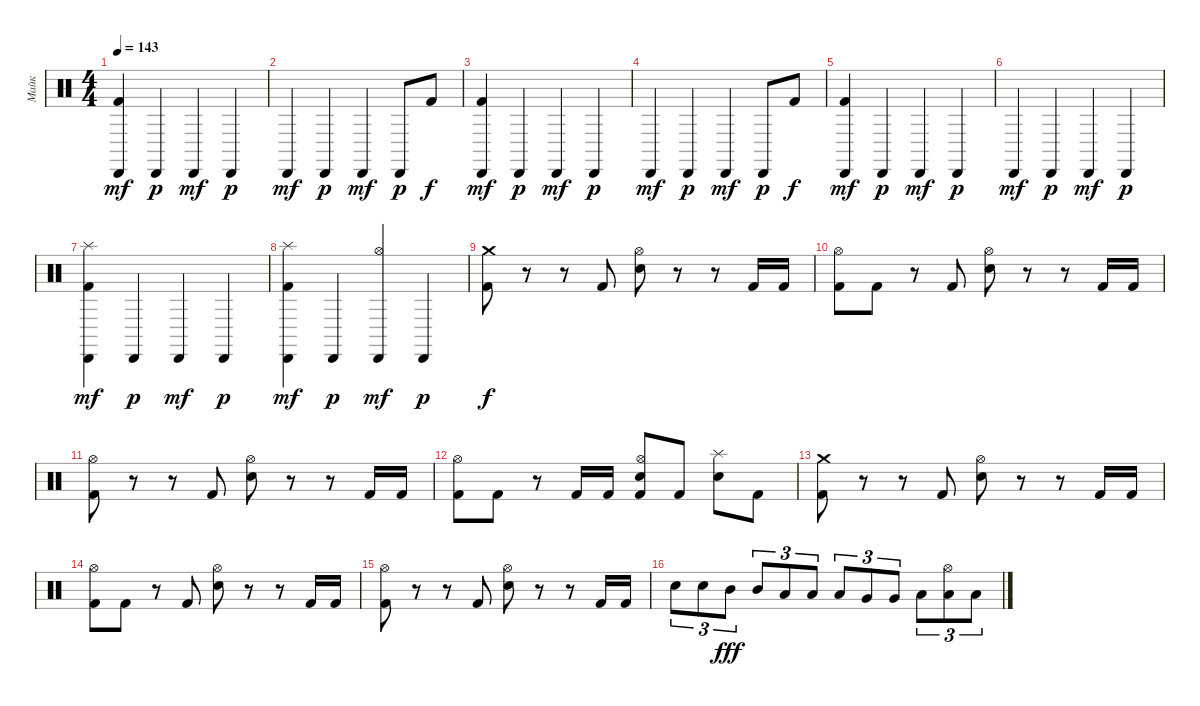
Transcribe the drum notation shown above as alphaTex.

\track ("Майк" "Майк") {instrument percussion}
\staff {score}
\articulation defaults
\ts (4 4)
\tempo 143
\clef neutral
\ks c
("Kick (hit) 2" "Cabasa (hit)").4{dy mf} "Cabasa (hit)".4{dy p} "Cabasa (hit)".4{dy mf} "Cabasa (hit)".4{dy p} |
"Cabasa (hit)".4{dy mf} "Cabasa (hit)".4{dy p} "Cabasa (hit)".4{dy mf} "Cabasa (hit)".8{dy p} "Kick (hit) 2".8{dy f} |
("Cabasa (hit)" "Kick (hit) 2").4{dy mf} "Cabasa (hit)".4{dy p} "Cabasa (hit)".4{dy mf} "Cabasa (hit)".4{dy p} |
"Cabasa (hit)".4{dy mf} "Cabasa (hit)".4{dy p} "Cabasa (hit)".4{dy mf} "Cabasa (hit)".8{dy p} "Kick (hit) 2".8{dy f} |
("Cabasa (hit)" "Kick (hit) 2").4{dy mf} "Cabasa (hit)".4{dy p} "Cabasa (hit)".4{dy mf} "Cabasa (hit)".4{dy p} |
"Cabasa (hit)".4{dy mf} "Cabasa (hit)".4{dy p} "Cabasa (hit)".4{dy mf} "Cabasa (hit)".4{dy p} |
("Splash (hit)" "Cabasa (hit)" "Kick (hit) 2").4{dy mf} "Cabasa (hit)".4{dy p} "Cabasa (hit)".4{dy mf} "Cabasa (hit)".4{dy p} |
("Splash (hit)" "Cabasa (hit)" "Kick (hit) 2").4{dy mf} "Cabasa (hit)".4{dy p} ("Cabasa (hit)" "Hi-Hat (open)").4{dy mf} "Cabasa (hit)".4{dy p} |
("Crash medium (hit)" "Kick (hit) 2").8{dy f} r.8 r.8 "Kick (hit) 2".8 ("Hi-Hat (open)" "Electric Snare (hit)").8 r.8 r.8 "Kick (hit) 2".16 "Kick (hit) 2".16 |
("Hi-Hat (open)" "Kick (hit) 2").8 "Kick (hit) 2".8 r.8 "Kick (hit) 2".8 ("Hi-Hat (open)" "Electric Snare (hit)").8 r.8 r.8 "Kick (hit) 2".16 "Kick (hit) 2".16 |
("Hi-Hat (open)" "Kick (hit) 2").8 r.8 r.8 "Kick (hit) 2".8 ("Hi-Hat (open)" "Electric Snare (hit)").8 r.8 r.8 "Kick (hit) 2".16 "Kick (hit) 2".16 |
("Hi-Hat (open)" "Kick (hit) 2").8 "Kick (hit) 2".8 r.8 "Kick (hit) 2".16 "Kick (hit) 2".16 ("Hi-Hat (open)" "Electric Snare (hit)" "Kick (hit) 2").8 "Kick (hit) 2".8 ("Splash (hit)" "Electric Snare (hit)").8 "Kick (hit) 2".8 |
("Crash medium (hit)" "Kick (hit) 2").8 r.8 r.8 "Kick (hit) 2".8 ("Hi-Hat (open)" "Electric Snare (hit)").8 r.8 r.8 "Kick (hit) 2".16 "Kick (hit) 2".16 |
("Hi-Hat (open)" "Kick (hit) 2").8 "Kick (hit) 2".8 r.8 "Kick (hit) 2".8 ("Hi-Hat (open)" "Electric Snare (hit)").8 r.8 r.8 "Kick (hit) 2".16 "Kick (hit) 2".16 |
("Hi-Hat (open)" "Kick (hit) 2").8 r.8 r.8 "Kick (hit) 2".8 ("Hi-Hat (open)" "Electric Snare (hit)").8 r.8 r.8 "Kick (hit) 2".16 "Kick (hit) 2".16 |
"Electric Snare (hit)".8{tu (3 2)} "Electric Snare (hit)".8{tu (3 2)} "Mid Tom (hit)".8{tu (3 2) dy fff} "Mid Tom (hit)".8{tu (3 2)} "Low Tom (hit)".8{tu (3 2)} "Low Tom (hit)".8{tu (3 2)} "Low Tom (hit)".8{tu (3 2)} "Very Low Tom (hit)".8{tu (3 2)} "Very Low Tom (hit)".8{tu (3 2)} "Low Floor Tom (hit)".8{tu (3 2)} ("Low Floor Tom (hit)" "Hi-Hat (open)").8{tu (3 2)} "Low Floor Tom (hit)".8{tu (3 2)}
